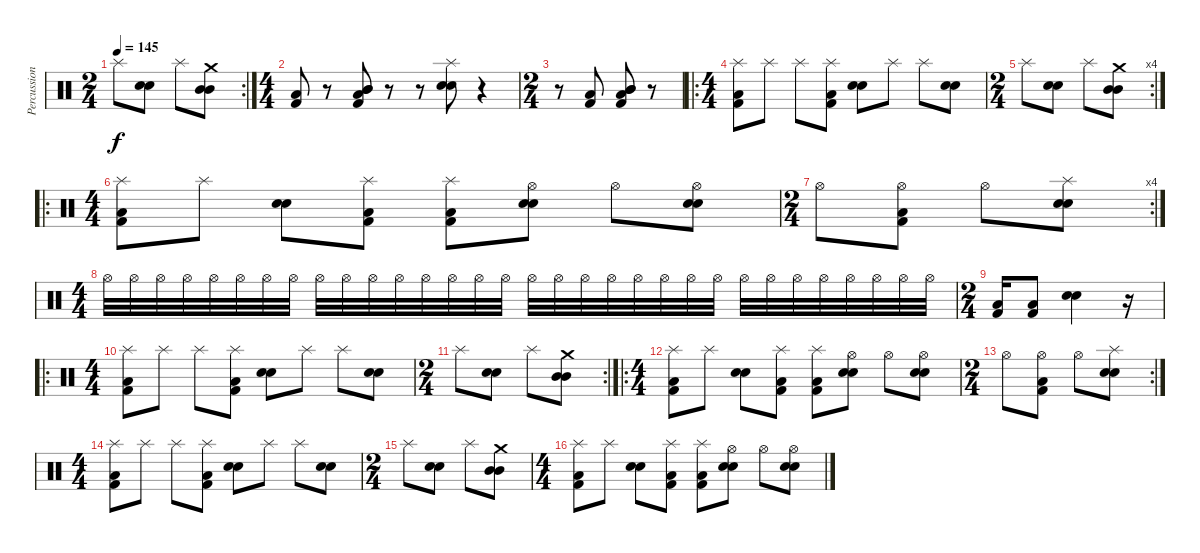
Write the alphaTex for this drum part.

\track ("Percussions" "Percussion") {instrument percussion}
\staff {score}
\articulation defaults
\rc 2
\ts (2 4)
\tempo 145
\clef neutral
\ks c "Splash (hit)".8{dy f}
("Snare (hit) 2" "Electric Snare (hit)").8 "Splash (hit)".8 ("Crash medium (hit)" "Mid Tom (hit)" "Mid Tom (hit)").8 |
\ts (4 4)
("Kick (hit) 2" "Low Floor Tom (hit)").8 r.8 ("Mid Tom (hit)" "Kick (hit) 2" "Low Floor Tom (hit)" "Mid Tom (hit)").8 r.8 r.8 ("Splash (hit)" "Snare (hit) 2" "Electric Snare (hit)").8 r.4 |
\ts (2 4)
r.8 ("Kick (hit) 2" "Low Floor Tom (hit)").8 ("Mid Tom (hit)" "Kick (hit) 2" "Low Floor Tom (hit)" "Mid Tom (hit)").8 r.8 |
\ro
\ts (4 4)
("Splash (hit)" "Low Floor Tom (hit)" "Kick (hit) 2").8 "Splash (hit)".8 "Splash (hit)".8 ("Splash (hit)" "Low Floor Tom (hit)" "Kick (hit) 2").8 ("Snare (hit) 2" "Electric Snare (hit)").8 "Splash (hit)".8 "Splash (hit)".8 ("Snare (hit) 2" "Electric Snare (hit)").8 |
\rc 4
\ts (2 4)
"Splash (hit)".8 ("Snare (hit) 2" "Electric Snare (hit)").8 "Splash (hit)".8 ("Crash medium (hit)" "Mid Tom (hit)" "Mid Tom (hit)").8 |
\ro
\ts (4 4)
("Splash (hit)" "Low Floor Tom (hit)" "Kick (hit) 2").8 "Splash (hit)".8 ("Snare (hit) 2" "Electric Snare (hit)").8 ("Splash (hit)" "Low Floor Tom (hit)" "Kick (hit) 2").8 ("Splash (hit)" "Low Floor Tom (hit)" "Kick (hit) 2").8 ("Hi-Hat (open)" "Snare (hit) 2" "Electric Snare (hit)").8 "Hi-Hat (open)".8 ("Hi-Hat (open)" "Snare (hit) 2" "Electric Snare (hit)").8 |
\rc 4
\ts (2 4)
"Hi-Hat (open)".8 ("Hi-Hat (open)" "Low Floor Tom (hit)" "Kick (hit) 2").8 "Hi-Hat (open)".8 ("Splash (hit)" "Snare (hit) 2" "Electric Snare (hit)").8 |
\ts (4 4)
"Hi-Hat (open)".32 "Hi-Hat (open)".32 "Hi-Hat (open)".32 "Hi-Hat (open)".32 "Hi-Hat (open)".32 "Hi-Hat (open)".32 "Hi-Hat (open)".32 "Hi-Hat (open)".32 "Hi-Hat (open)".32 "Hi-Hat (open)".32 "Hi-Hat (open)".32 "Hi-Hat (open)".32 "Hi-Hat (open)".32 "Hi-Hat (open)".32 "Hi-Hat (open)".32 "Hi-Hat (open)".32 "Hi-Hat (open)".32 "Hi-Hat (open)".32 "Hi-Hat (open)".32 "Hi-Hat (open)".32 "Hi-Hat (open)".32 "Hi-Hat (open)".32 "Hi-Hat (open)".32 "Hi-Hat (open)".32 "Hi-Hat (open)".32 "Hi-Hat (open)".32 "Hi-Hat (open)".32 "Hi-Hat (open)".32 "Hi-Hat (open)".32 "Hi-Hat (open)".32 "Hi-Hat (open)".32 "Hi-Hat (open)".32 |
\ts (2 4)
("Low Floor Tom (hit)" "Kick (hit) 2").16 ("Low Floor Tom (hit)" "Kick (hit) 2").8 ("Snare (hit) 2" "Electric Snare (hit)").4 r.16 |
\ro
\ts (4 4)
("Splash (hit)" "Low Floor Tom (hit)" "Kick (hit) 2").8 "Splash (hit)".8 "Splash (hit)".8 ("Splash (hit)" "Low Floor Tom (hit)" "Kick (hit) 2").8 ("Snare (hit) 2" "Electric Snare (hit)").8 "Splash (hit)".8 "Splash (hit)".8 ("Snare (hit) 2" "Electric Snare (hit)").8 |
\rc 2
\ts (2 4)
"Splash (hit)".8 ("Snare (hit) 2" "Electric Snare (hit)").8 "Splash (hit)".8 ("Crash medium (hit)" "Mid Tom (hit)" "Mid Tom (hit)").8 |
\ro
\ts (4 4)
("Splash (hit)" "Low Floor Tom (hit)" "Kick (hit) 2").8 "Splash (hit)".8 ("Snare (hit) 2" "Electric Snare (hit)").8 ("Splash (hit)" "Low Floor Tom (hit)" "Kick (hit) 2").8 ("Splash (hit)" "Low Floor Tom (hit)" "Kick (hit) 2").8 ("Hi-Hat (open)" "Snare (hit) 2" "Electric Snare (hit)").8 "Hi-Hat (open)".8 ("Hi-Hat (open)" "Snare (hit) 2" "Electric Snare (hit)").8 |
\rc 2
\ts (2 4)
"Hi-Hat (open)".8 ("Hi-Hat (open)" "Low Floor Tom (hit)" "Kick (hit) 2").8 "Hi-Hat (open)".8 ("Splash (hit)" "Snare (hit) 2" "Electric Snare (hit)").8 |
\ts (4 4)
("Splash (hit)" "Low Floor Tom (hit)" "Kick (hit) 2").8 "Splash (hit)".8 "Splash (hit)".8 ("Splash (hit)" "Low Floor Tom (hit)" "Kick (hit) 2").8 ("Snare (hit) 2" "Electric Snare (hit)").8 "Splash (hit)".8 "Splash (hit)".8 ("Snare (hit) 2" "Electric Snare (hit)").8 |
\ts (2 4)
"Splash (hit)".8 ("Snare (hit) 2" "Electric Snare (hit)").8 "Splash (hit)".8 ("Crash medium (hit)" "Mid Tom (hit)" "Mid Tom (hit)").8 |
\ts (4 4)
("Splash (hit)" "Low Floor Tom (hit)" "Kick (hit) 2").8 "Splash (hit)".8 ("Snare (hit) 2" "Electric Snare (hit)").8 ("Splash (hit)" "Low Floor Tom (hit)" "Kick (hit) 2").8 ("Splash (hit)" "Low Floor Tom (hit)" "Kick (hit) 2").8 ("Hi-Hat (open)" "Snare (hit) 2" "Electric Snare (hit)").8 "Hi-Hat (open)".8 ("Hi-Hat (open)" "Snare (hit) 2" "Electric Snare (hit)").8
